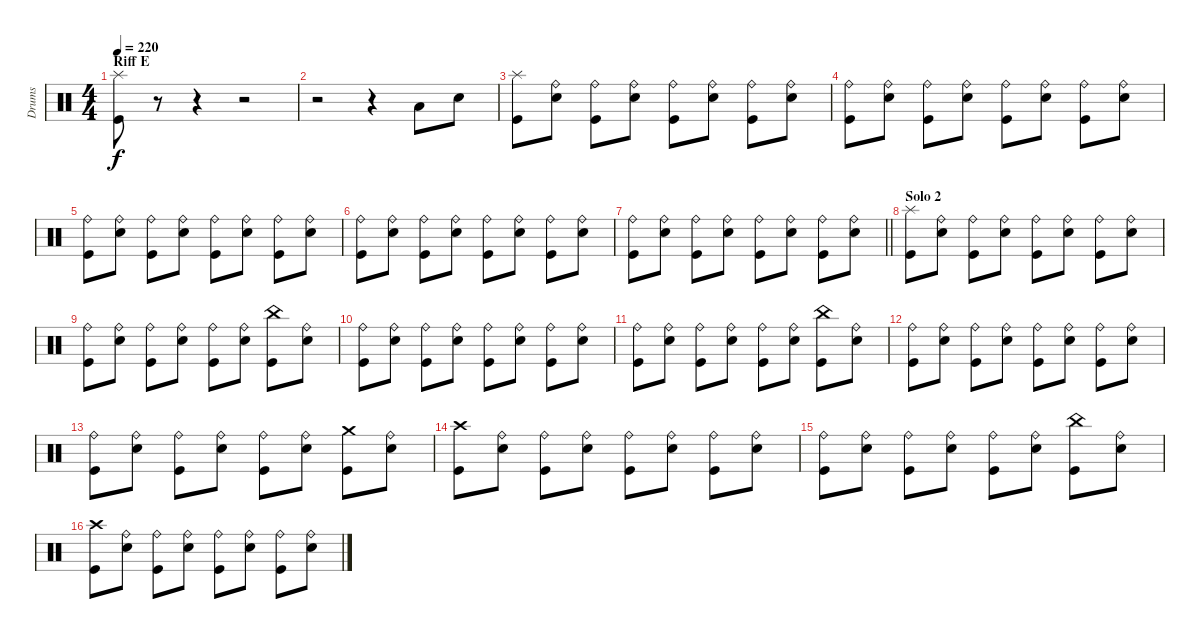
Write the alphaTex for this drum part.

\track ("Drums" "Drums") {instrument percussion}
\staff {score}
\articulation defaults
\ts (4 4)
\section ("" "Riff E")
\tempo 220
\clef neutral
\ks c
("Kick (hit)" "Splash (hit)").8{dy f} r.8 r.4 r.2 |
r.2 r.4 "Low Floor Tom (hit)".8 "Electric Snare (hit)".8 |
("Kick (hit)" "Splash (hit)").8 ("Electric Snare (hit)" "Ride (bell)").8 ("Kick (hit)" "Ride (bell)").8 ("Electric Snare (hit)" "Ride (bell)").8 ("Kick (hit)" "Ride (bell)").8 ("Electric Snare (hit)" "Ride (bell)").8 ("Kick (hit)" "Ride (bell)").8 ("Electric Snare (hit)" "Ride (bell)").8 |
("Kick (hit)" "Ride (bell)").8 ("Electric Snare (hit)" "Ride (bell)").8 ("Kick (hit)" "Ride (bell)").8 ("Electric Snare (hit)" "Ride (bell)").8 ("Kick (hit)" "Ride (bell)").8 ("Electric Snare (hit)" "Ride (bell)").8 ("Kick (hit)" "Ride (bell)").8 ("Electric Snare (hit)" "Ride (bell)").8 |
("Kick (hit)" "Ride (bell)").8 ("Electric Snare (hit)" "Ride (bell)").8 ("Kick (hit)" "Ride (bell)").8 ("Electric Snare (hit)" "Ride (bell)").8 ("Kick (hit)" "Ride (bell)").8 ("Electric Snare (hit)" "Ride (bell)").8 ("Kick (hit)" "Ride (bell)").8 ("Electric Snare (hit)" "Ride (bell)").8 |
("Kick (hit)" "Ride (bell)").8 ("Electric Snare (hit)" "Ride (bell)").8 ("Kick (hit)" "Ride (bell)").8 ("Electric Snare (hit)" "Ride (bell)").8 ("Kick (hit)" "Ride (bell)").8 ("Electric Snare (hit)" "Ride (bell)").8 ("Kick (hit)" "Ride (bell)").8 ("Electric Snare (hit)" "Ride (bell)").8 |
\barLineRight lightlight
("Kick (hit)" "Ride (bell)").8 ("Electric Snare (hit)" "Ride (bell)").8 ("Kick (hit)" "Ride (bell)").8 ("Electric Snare (hit)" "Ride (bell)").8 ("Kick (hit)" "Ride (bell)").8 ("Electric Snare (hit)" "Ride (bell)").8 ("Kick (hit)" "Ride (bell)").8 ("Electric Snare (hit)" "Ride (bell)").8 |
\section ("" "Solo 2")
("Kick (hit)" "Splash (hit)").8 ("Electric Snare (hit)" "Ride (bell)").8 ("Kick (hit)" "Ride (bell)").8 ("Electric Snare (hit)" "Ride (bell)").8 ("Kick (hit)" "Ride (bell)").8 ("Electric Snare (hit)" "Ride (bell)").8 ("Kick (hit)" "Ride (bell)").8 ("Electric Snare (hit)" "Ride (bell)").8 |
("Kick (hit)" "Ride (bell)").8 ("Electric Snare (hit)" "Ride (bell)").8 ("Kick (hit)" "Ride (bell)").8 ("Electric Snare (hit)" "Ride (bell)").8 ("Kick (hit)" "Ride (bell)").8 ("Electric Snare (hit)" "Ride (bell)").8 ("Kick (hit)" "China (hit)").8 ("Electric Snare (hit)" "Ride (bell)").8 |
("Kick (hit)" "Ride (bell)").8 ("Electric Snare (hit)" "Ride (bell)").8 ("Kick (hit)" "Ride (bell)").8 ("Electric Snare (hit)" "Ride (bell)").8 ("Kick (hit)" "Ride (bell)").8 ("Electric Snare (hit)" "Ride (bell)").8 ("Kick (hit)" "Ride (bell)").8 ("Electric Snare (hit)" "Ride (bell)").8 |
("Kick (hit)" "Ride (bell)").8 ("Electric Snare (hit)" "Ride (bell)").8 ("Kick (hit)" "Ride (bell)").8 ("Electric Snare (hit)" "Ride (bell)").8 ("Kick (hit)" "Ride (bell)").8 ("Electric Snare (hit)" "Ride (bell)").8 ("Kick (hit)" "China (hit)").8 ("Electric Snare (hit)" "Ride (bell)").8 |
("Kick (hit)" "Ride (bell)").8 ("Electric Snare (hit)" "Ride (bell)").8 ("Kick (hit)" "Ride (bell)").8 ("Electric Snare (hit)" "Ride (bell)").8 ("Kick (hit)" "Ride (bell)").8 ("Electric Snare (hit)" "Ride (bell)").8 ("Kick (hit)" "Ride (bell)").8 ("Electric Snare (hit)" "Ride (bell)").8 |
("Kick (hit)" "Ride (bell)").8 ("Electric Snare (hit)" "Ride (bell)").8 ("Kick (hit)" "Ride (bell)").8 ("Electric Snare (hit)" "Ride (bell)").8 ("Kick (hit)" "Ride (bell)").8 ("Electric Snare (hit)" "Ride (bell)").8 ("Kick (hit)" "Crash medium (hit)").8 ("Electric Snare (hit)" "Ride (bell)").8 |
("Kick (hit)" "Crash high (hit)").8 ("Electric Snare (hit)" "Ride (bell)").8 ("Kick (hit)" "Ride (bell)").8 ("Electric Snare (hit)" "Ride (bell)").8 ("Kick (hit)" "Ride (bell)").8 ("Electric Snare (hit)" "Ride (bell)").8 ("Kick (hit)" "Ride (bell)").8 ("Electric Snare (hit)" "Ride (bell)").8 |
("Kick (hit)" "Ride (bell)").8 ("Electric Snare (hit)" "Ride (bell)").8 ("Kick (hit)" "Ride (bell)").8 ("Electric Snare (hit)" "Ride (bell)").8 ("Kick (hit)" "Ride (bell)").8 ("Electric Snare (hit)" "Ride (bell)").8 ("Kick (hit)" "China (hit)").8 ("Electric Snare (hit)" "Ride (bell)").8 |
("Kick (hit)" "Crash high (hit)").8 ("Electric Snare (hit)" "Ride (bell)").8 ("Kick (hit)" "Ride (bell)").8 ("Electric Snare (hit)" "Ride (bell)").8 ("Kick (hit)" "Ride (bell)").8 ("Electric Snare (hit)" "Ride (bell)").8 ("Kick (hit)" "Ride (bell)").8 ("Electric Snare (hit)" "Ride (bell)").8
